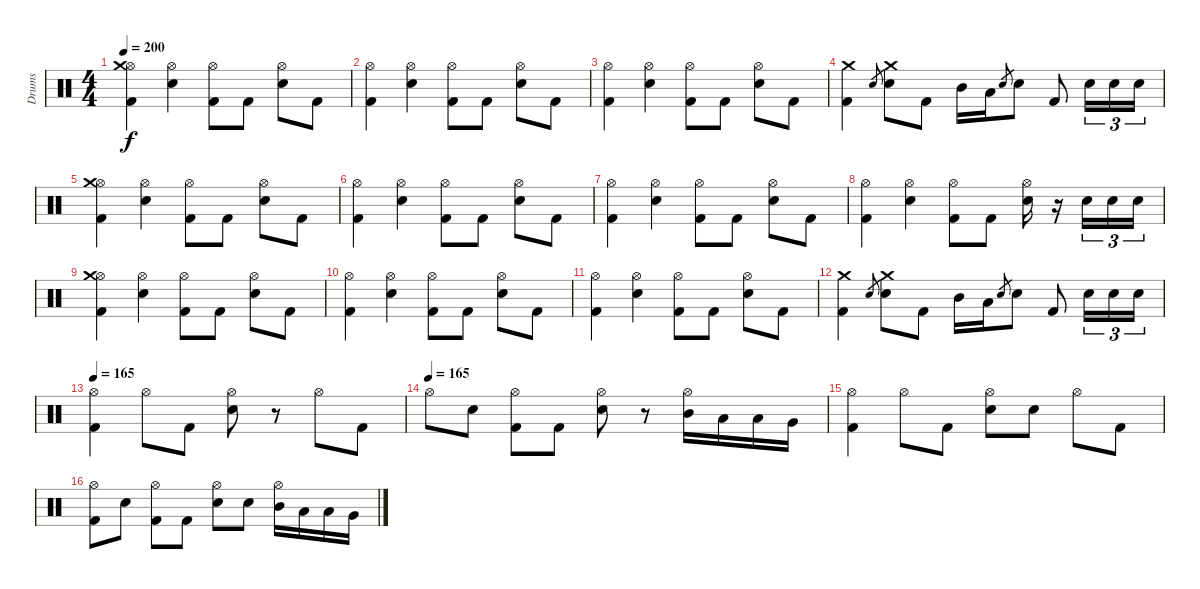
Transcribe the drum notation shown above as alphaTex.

\track ("Drums" "Drums") {instrument percussion}
\staff {score}
\articulation defaults
\ts (4 4)
\tempo 200
\clef neutral
\ks c
("Hi-Hat (open)" "Crash medium (hit)" "Kick (hit) 2").4{dy f} ("Hi-Hat (open)" "Snare (hit) 2").4 ("Hi-Hat (open)" "Kick (hit) 2").8 "Kick (hit) 2".8 ("Hi-Hat (open)" "Snare (hit) 2").8 "Kick (hit) 2".8 |
("Hi-Hat (open)" "Kick (hit) 2").4 ("Hi-Hat (open)" "Snare (hit) 2").4 ("Hi-Hat (open)" "Kick (hit) 2").8 "Kick (hit) 2".8 ("Hi-Hat (open)" "Snare (hit) 2").8 "Kick (hit) 2".8 |
("Hi-Hat (open)" "Kick (hit) 2").4 ("Hi-Hat (open)" "Snare (hit) 2").4 ("Hi-Hat (open)" "Kick (hit) 2").8 "Kick (hit) 2".8 ("Hi-Hat (open)" "Snare (hit) 2").8 "Kick (hit) 2".8 |
("Crash medium (hit)" "Kick (hit) 2").4 "Snare (hit) 2".8{gr} ("Crash medium (hit)" "Snare (hit) 2").8 "Kick (hit) 2".8 "Mid Tom (hit)".16 "Low Tom (hit)".16 "Snare (hit) 2".8{gr} "Snare (hit) 2".8 "Kick (hit) 2".8 "Snare (hit) 2".16{tu (3 2)} "Snare (hit) 2".16{tu (3 2)} "Snare (hit) 2".16{tu (3 2)} |
("Hi-Hat (open)" "Crash medium (hit)" "Kick (hit) 2").4 ("Hi-Hat (open)" "Snare (hit) 2").4 ("Hi-Hat (open)" "Kick (hit) 2").8 "Kick (hit) 2".8 ("Hi-Hat (open)" "Snare (hit) 2").8 "Kick (hit) 2".8 |
("Hi-Hat (open)" "Kick (hit) 2").4 ("Hi-Hat (open)" "Snare (hit) 2").4 ("Hi-Hat (open)" "Kick (hit) 2").8 "Kick (hit) 2".8 ("Hi-Hat (open)" "Snare (hit) 2").8 "Kick (hit) 2".8 |
("Hi-Hat (open)" "Kick (hit) 2").4 ("Hi-Hat (open)" "Snare (hit) 2").4 ("Hi-Hat (open)" "Kick (hit) 2").8 "Kick (hit) 2".8 ("Hi-Hat (open)" "Snare (hit) 2").8 "Kick (hit) 2".8 |
("Hi-Hat (open)" "Kick (hit) 2").4 ("Hi-Hat (open)" "Snare (hit) 2").4 ("Hi-Hat (open)" "Kick (hit) 2").8 "Kick (hit) 2".8 ("Hi-Hat (open)" "Snare (hit) 2").16 r.16 "Snare (hit) 2".16{tu (3 2)} "Snare (hit) 2".16{tu (3 2)} "Snare (hit) 2".16{tu (3 2)} |
("Hi-Hat (open)" "Crash medium (hit)" "Kick (hit) 2").4 ("Hi-Hat (open)" "Snare (hit) 2").4 ("Hi-Hat (open)" "Kick (hit) 2").8 "Kick (hit) 2".8 ("Hi-Hat (open)" "Snare (hit) 2").8 "Kick (hit) 2".8 |
("Hi-Hat (open)" "Kick (hit) 2").4 ("Hi-Hat (open)" "Snare (hit) 2").4 ("Hi-Hat (open)" "Kick (hit) 2").8 "Kick (hit) 2".8 ("Hi-Hat (open)" "Snare (hit) 2").8 "Kick (hit) 2".8 |
("Hi-Hat (open)" "Kick (hit) 2").4 ("Hi-Hat (open)" "Snare (hit) 2").4 ("Hi-Hat (open)" "Kick (hit) 2").8 "Kick (hit) 2".8 ("Hi-Hat (open)" "Snare (hit) 2").8 "Kick (hit) 2".8 |
("Crash medium (hit)" "Kick (hit) 2").4 "Snare (hit) 2".8{gr} ("Crash medium (hit)" "Snare (hit) 2").8 "Kick (hit) 2".8 "Mid Tom (hit)".16 "Low Tom (hit)".16 "Snare (hit) 2".8{gr} "Snare (hit) 2".8 "Kick (hit) 2".8 "Snare (hit) 2".16{tu (3 2)} "Snare (hit) 2".16{tu (3 2)} "Snare (hit) 2".16{tu (3 2)} |
\tempo 170
\tempo 165
("Hi-Hat (open)" "Kick (hit) 2").4 "Hi-Hat (open)".8 "Kick (hit) 2".8 ("Hi-Hat (open)" "Snare (hit) 2").8 r.8 "Hi-Hat (open)".8 "Kick (hit) 2".8 |
\tempo (165)
"Hi-Hat (open)".8 "Snare (hit) 2".8 ("Hi-Hat (open)" "Kick (hit) 2").8 "Kick (hit) 2".8 ("Hi-Hat (open)" "Snare (hit) 2").8 r.8 ("Hi-Hat (open)" "Mid Tom (hit)").16 "Low Tom (hit)".16 "Low Tom (hit)".16 "Very Low Tom (hit)".16 |
("Hi-Hat (open)" "Kick (hit) 2").4 "Hi-Hat (open)".8 "Kick (hit) 2".8 ("Hi-Hat (open)" "Snare (hit) 2").8 "Snare (hit) 2".8 "Hi-Hat (open)".8 "Kick (hit) 2".8 |
("Hi-Hat (open)" "Kick (hit) 2").8 "Snare (hit) 2".8 ("Hi-Hat (open)" "Kick (hit) 2").8 "Kick (hit) 2".8 ("Hi-Hat (open)" "Snare (hit) 2").8 "Snare (hit) 2".8 ("Hi-Hat (open)" "Mid Tom (hit)").16 "Low Tom (hit)".16 "Low Tom (hit)".16 "Very Low Tom (hit)".16
